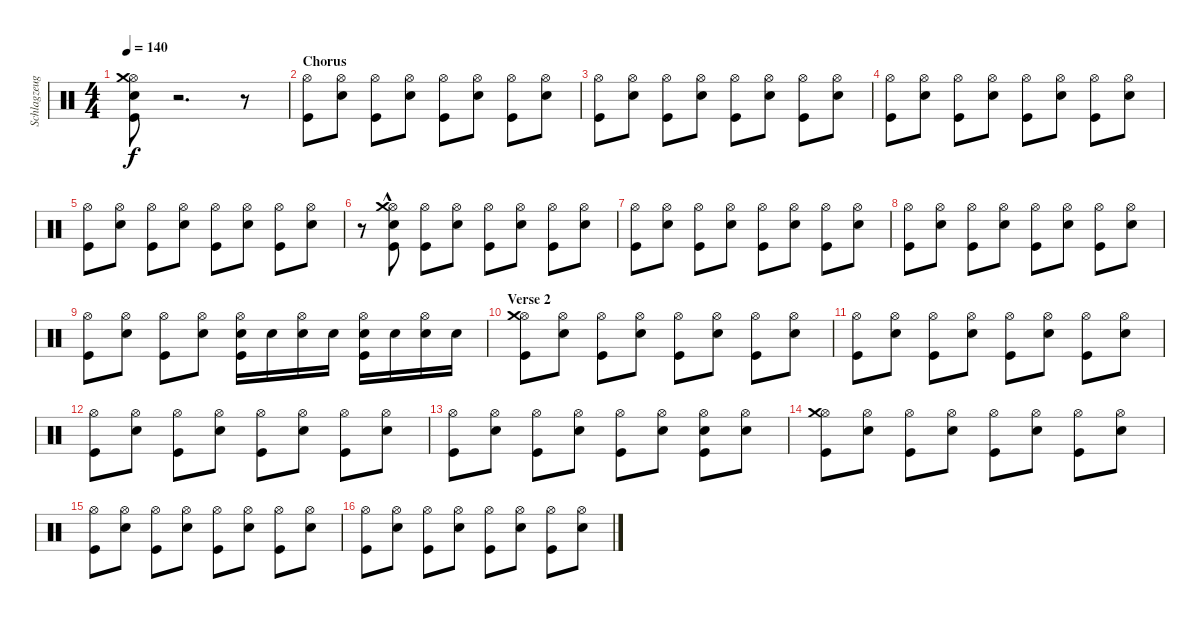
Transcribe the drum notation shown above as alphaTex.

\track ("Schlagzeug - Bela B." "Schlagzeug") {instrument percussion}
\staff {score}
\articulation defaults
\ts (4 4)
\tempo 140
\clef neutral
\ks c
("Kick (hit)" "Hi-Hat (open)" "Electric Snare (hit)" "Crash medium (hit)").8{dy f} r.2{d} r.8 |
\section ("" "Chorus")
("Kick (hit)" "Hi-Hat (open)").8 ("Hi-Hat (open)" "Electric Snare (hit)").8 ("Hi-Hat (open)" "Kick (hit)").8 ("Hi-Hat (open)" "Electric Snare (hit)").8 ("Kick (hit)" "Hi-Hat (open)").8 ("Hi-Hat (open)" "Electric Snare (hit)").8 ("Hi-Hat (open)" "Kick (hit)").8 ("Hi-Hat (open)" "Electric Snare (hit)").8 |
("Kick (hit)" "Hi-Hat (open)").8 ("Hi-Hat (open)" "Electric Snare (hit)").8 ("Hi-Hat (open)" "Kick (hit)").8 ("Hi-Hat (open)" "Electric Snare (hit)").8 ("Kick (hit)" "Hi-Hat (open)").8 ("Hi-Hat (open)" "Electric Snare (hit)").8 ("Hi-Hat (open)" "Kick (hit)").8 ("Hi-Hat (open)" "Electric Snare (hit)").8 |
("Kick (hit)" "Hi-Hat (open)").8 ("Hi-Hat (open)" "Electric Snare (hit)").8 ("Hi-Hat (open)" "Kick (hit)").8 ("Hi-Hat (open)" "Electric Snare (hit)").8 ("Kick (hit)" "Hi-Hat (open)").8 ("Hi-Hat (open)" "Electric Snare (hit)").8 ("Hi-Hat (open)" "Kick (hit)").8 ("Hi-Hat (open)" "Electric Snare (hit)").8 |
("Kick (hit)" "Hi-Hat (open)").8 ("Hi-Hat (open)" "Electric Snare (hit)").8 ("Hi-Hat (open)" "Kick (hit)").8 ("Hi-Hat (open)" "Electric Snare (hit)").8 ("Kick (hit)" "Hi-Hat (open)").8 ("Hi-Hat (open)" "Electric Snare (hit)").8 ("Hi-Hat (open)" "Kick (hit)").8 ("Hi-Hat (open)" "Electric Snare (hit)").8 |
r.8 ("Hi-Hat (open)" "Electric Snare (hit)" "Crash medium (hit)"{hac} "Kick (hit)").8 ("Hi-Hat (open)" "Kick (hit)").8 ("Hi-Hat (open)" "Electric Snare (hit)").8 ("Kick (hit)" "Hi-Hat (open)").8 ("Hi-Hat (open)" "Electric Snare (hit)").8 ("Hi-Hat (open)" "Kick (hit)").8 ("Hi-Hat (open)" "Electric Snare (hit)").8 |
("Kick (hit)" "Hi-Hat (open)").8 ("Hi-Hat (open)" "Electric Snare (hit)").8 ("Hi-Hat (open)" "Kick (hit)").8 ("Hi-Hat (open)" "Electric Snare (hit)").8 ("Kick (hit)" "Hi-Hat (open)").8 ("Hi-Hat (open)" "Electric Snare (hit)").8 ("Hi-Hat (open)" "Kick (hit)").8 ("Hi-Hat (open)" "Electric Snare (hit)").8 |
("Kick (hit)" "Hi-Hat (open)").8 ("Hi-Hat (open)" "Electric Snare (hit)").8 ("Hi-Hat (open)" "Kick (hit)").8 ("Hi-Hat (open)" "Electric Snare (hit)").8 ("Kick (hit)" "Hi-Hat (open)").8 ("Hi-Hat (open)" "Electric Snare (hit)").8 ("Hi-Hat (open)" "Kick (hit)").8 ("Hi-Hat (open)" "Electric Snare (hit)").8 |
("Kick (hit)" "Hi-Hat (open)").8 ("Hi-Hat (open)" "Electric Snare (hit)").8 ("Hi-Hat (open)" "Kick (hit)").8 ("Hi-Hat (open)" "Electric Snare (hit)").8 ("Kick (hit)" "Hi-Hat (open)" "Electric Snare (hit)").16 "Electric Snare (hit)".16 ("Hi-Hat (open)" "Electric Snare (hit)").16 "Electric Snare (hit)".16 ("Hi-Hat (open)" "Kick (hit)" "Electric Snare (hit)").16 "Electric Snare (hit)".16 ("Hi-Hat (open)" "Electric Snare (hit)").16 "Electric Snare (hit)".16 |
\section ("" "Verse 2")
("Kick (hit)" "Hi-Hat (open)" "Crash medium (hit)").8 ("Hi-Hat (open)" "Electric Snare (hit)").8 ("Hi-Hat (open)" "Kick (hit)").8 ("Hi-Hat (open)" "Electric Snare (hit)").8 ("Kick (hit)" "Hi-Hat (open)").8 ("Hi-Hat (open)" "Electric Snare (hit)").8 ("Hi-Hat (open)" "Kick (hit)").8 ("Hi-Hat (open)" "Electric Snare (hit)").8 |
("Kick (hit)" "Hi-Hat (open)").8 ("Hi-Hat (open)" "Electric Snare (hit)").8 ("Hi-Hat (open)" "Kick (hit)").8 ("Hi-Hat (open)" "Electric Snare (hit)").8 ("Kick (hit)" "Hi-Hat (open)").8 ("Hi-Hat (open)" "Electric Snare (hit)").8 ("Hi-Hat (open)" "Kick (hit)").8 ("Hi-Hat (open)" "Electric Snare (hit)").8 |
("Kick (hit)" "Hi-Hat (open)").8 ("Hi-Hat (open)" "Electric Snare (hit)").8 ("Hi-Hat (open)" "Kick (hit)").8 ("Hi-Hat (open)" "Electric Snare (hit)").8 ("Kick (hit)" "Hi-Hat (open)").8 ("Hi-Hat (open)" "Electric Snare (hit)").8 ("Hi-Hat (open)" "Kick (hit)").8 ("Hi-Hat (open)" "Electric Snare (hit)").8 |
("Kick (hit)" "Hi-Hat (open)").8 ("Hi-Hat (open)" "Electric Snare (hit)").8 ("Hi-Hat (open)" "Kick (hit)").8 ("Hi-Hat (open)" "Electric Snare (hit)").8 ("Kick (hit)" "Hi-Hat (open)").8 ("Hi-Hat (open)" "Electric Snare (hit)").8 ("Hi-Hat (open)" "Kick (hit)" "Electric Snare (hit)").8 ("Hi-Hat (open)" "Electric Snare (hit)").8 |
("Kick (hit)" "Hi-Hat (open)" "Crash medium (hit)").8 ("Hi-Hat (open)" "Electric Snare (hit)").8 ("Hi-Hat (open)" "Kick (hit)").8 ("Hi-Hat (open)" "Electric Snare (hit)").8 ("Kick (hit)" "Hi-Hat (open)").8 ("Hi-Hat (open)" "Electric Snare (hit)").8 ("Hi-Hat (open)" "Kick (hit)").8 ("Hi-Hat (open)" "Electric Snare (hit)").8 |
("Kick (hit)" "Hi-Hat (open)").8 ("Hi-Hat (open)" "Electric Snare (hit)").8 ("Hi-Hat (open)" "Kick (hit)").8 ("Hi-Hat (open)" "Electric Snare (hit)").8 ("Kick (hit)" "Hi-Hat (open)").8 ("Hi-Hat (open)" "Electric Snare (hit)").8 ("Hi-Hat (open)" "Kick (hit)").8 ("Hi-Hat (open)" "Electric Snare (hit)").8 |
("Kick (hit)" "Hi-Hat (open)").8 ("Hi-Hat (open)" "Electric Snare (hit)").8 ("Hi-Hat (open)" "Kick (hit)").8 ("Hi-Hat (open)" "Electric Snare (hit)").8 ("Kick (hit)" "Hi-Hat (open)").8 ("Hi-Hat (open)" "Electric Snare (hit)").8 ("Hi-Hat (open)" "Kick (hit)").8 ("Hi-Hat (open)" "Electric Snare (hit)").8
